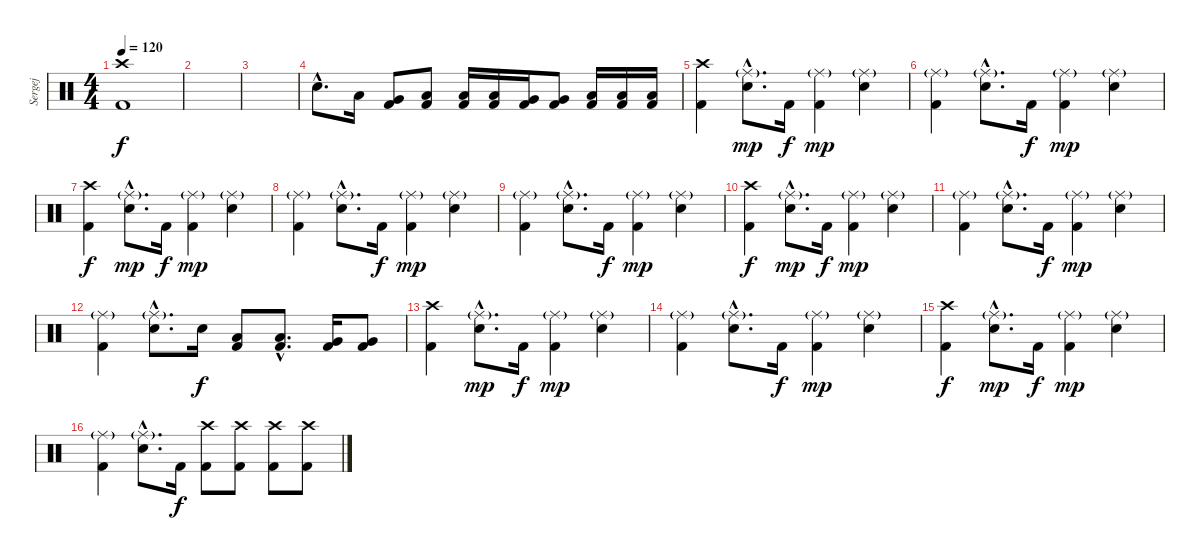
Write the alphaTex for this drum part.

\track ("Sergej" "Sergej") {instrument percussion}
\staff {score}
\articulation defaults
\ts (4 4)
\tempo 120
\clef neutral
\ks c
("Crash high (hit)" "Kick (hit) 2").1{dy f} |
|
|
"Snare (hit) 2"{hac}.8{d} "Low Tom (hit)".16 ("Kick (hit) 2" "Very Low Tom (hit)").8 ("Kick (hit) 2" "Low Floor Tom (hit)").8 ("Kick (hit) 2" "Low Tom (hit)").16 ("Kick (hit) 2" "Low Tom (hit)").16 ("Kick (hit) 2" "Very Low Tom (hit)").16 ("Kick (hit) 2" "Very Low Tom (hit)").8 ("Kick (hit) 2" "Low Floor Tom (hit)").16 ("Kick (hit) 2" "Low Floor Tom (hit)").16 ("Kick (hit) 2" "Low Floor Tom (hit)").16 |
("Crash high (hit)" "Kick (hit) 2").4 ("Ride (middle)"{g hac} "Snare (hit) 2"{hac}).8{d dy mp} "Kick (hit) 2".16{dy f} ("Ride (middle)"{g} "Kick (hit) 2").4{dy mp} ("Ride (middle)"{g} "Snare (hit) 2").4 |
("Ride (middle)"{g} "Kick (hit) 2").4 ("Ride (middle)"{g hac} "Snare (hit) 2"{hac}).8{d} "Kick (hit) 2".16{dy f} ("Ride (middle)"{g} "Kick (hit) 2").4{dy mp} ("Ride (middle)"{g} "Snare (hit) 2").4 |
("Crash high (hit)" "Kick (hit) 2").4{dy f} ("Ride (middle)"{g hac} "Snare (hit) 2"{hac}).8{d dy mp} "Kick (hit) 2".16{dy f} ("Ride (middle)"{g} "Kick (hit) 2").4{dy mp} ("Ride (middle)"{g} "Snare (hit) 2").4 |
("Ride (middle)"{g} "Kick (hit) 2").4 ("Ride (middle)"{g hac} "Snare (hit) 2"{hac}).8{d} "Kick (hit) 2".16{dy f} ("Ride (middle)"{g} "Kick (hit) 2").4{dy mp} ("Ride (middle)"{g} "Snare (hit) 2").4 |
("Ride (middle)"{g} "Kick (hit) 2").4 ("Ride (middle)"{g hac} "Snare (hit) 2"{hac}).8{d} "Kick (hit) 2".16{dy f} ("Ride (middle)"{g} "Kick (hit) 2").4{dy mp} ("Ride (middle)"{g} "Snare (hit) 2").4 |
("Crash high (hit)" "Kick (hit) 2").4{dy f} ("Ride (middle)"{g hac} "Snare (hit) 2"{hac}).8{d dy mp} "Kick (hit) 2".16{dy f} ("Ride (middle)"{g} "Kick (hit) 2").4{dy mp} ("Ride (middle)"{g} "Snare (hit) 2").4 |
("Ride (middle)"{g} "Kick (hit) 2").4 ("Ride (middle)"{g hac} "Snare (hit) 2"{hac}).8{d} "Kick (hit) 2".16{dy f} ("Ride (middle)"{g} "Kick (hit) 2").4{dy mp} ("Ride (middle)"{g} "Snare (hit) 2").4 |
("Ride (middle)"{g} "Kick (hit) 2").4 ("Ride (middle)"{g hac} "Snare (hit) 2"{hac}).8{d} "Snare (hit) 2".16{dy f} ("Kick (hit) 2" "Low Tom (hit)").8 ("Kick (hit) 2"{hac} "Low Tom (hit)"{hac}).8{d} ("Kick (hit) 2" "Very Low Tom (hit)").16 ("Kick (hit) 2" "Very Low Tom (hit)").8 |
("Crash high (hit)" "Kick (hit) 2").4 ("Ride (middle)"{g hac} "Snare (hit) 2"{hac}).8{d dy mp} "Kick (hit) 2".16{dy f} ("Ride (middle)"{g} "Kick (hit) 2").4{dy mp} ("Ride (middle)"{g} "Snare (hit) 2").4 |
("Ride (middle)"{g} "Kick (hit) 2").4 ("Ride (middle)"{g hac} "Snare (hit) 2"{hac}).8{d} "Kick (hit) 2".16{dy f} ("Ride (middle)"{g} "Kick (hit) 2").4{dy mp} ("Ride (middle)"{g} "Snare (hit) 2").4 |
("Crash high (hit)" "Kick (hit) 2").4{dy f} ("Ride (middle)"{g hac} "Snare (hit) 2"{hac}).8{d dy mp} "Kick (hit) 2".16{dy f} ("Ride (middle)"{g} "Kick (hit) 2").4{dy mp} ("Ride (middle)"{g} "Snare (hit) 2").4 |
("Ride (middle)"{g} "Kick (hit) 2").4 ("Ride (middle)"{g hac} "Snare (hit) 2"{hac}).8{d} "Kick (hit) 2".16{dy f} ("Crash high (hit)" "Kick (hit) 2").8 ("Crash high (hit)" "Kick (hit) 2").8 ("Crash high (hit)" "Kick (hit) 2").8 ("Crash high (hit)" "Kick (hit) 2").8
